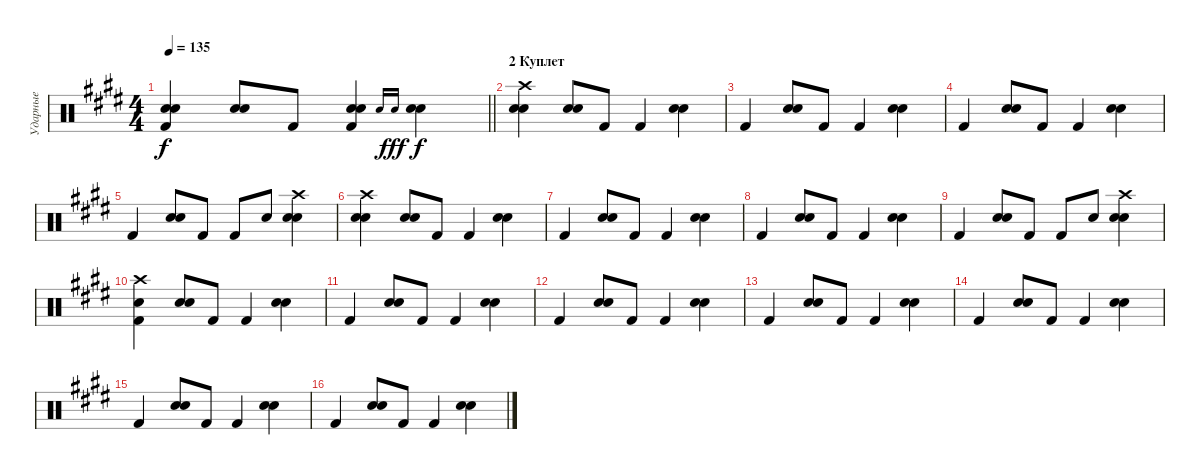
\track ("Ударные" "Ударные") {instrument percussion}
\staff {score}
\articulation defaults
\ts (4 4)
\tempo 135
\clef neutral
\barLineRight lightlight
\ks c#minor
("Electric Snare (hit)" "Electric Snare (hit)" "Kick (hit) 2").4{dy f} ("Snare (hit) 2" "Electric Snare (hit)").8 "Kick (hit) 2".8 ("Electric Snare (hit)" "Electric Snare (hit)" "Kick (hit) 2").4 "Electric Snare (hit)".16{gr onbeat} "Electric Snare (hit)".16{gr onbeat dy fff} ("Electric Snare (hit)" "Electric Snare (hit)").4{dy f} |
\section ("" "2 Куплет")
("Crash high (hit)" "Snare (hit) 2" "Electric Snare (hit)").4 ("Snare (hit) 2" "Electric Snare (hit)").8 "Kick (hit) 2".8 "Kick (hit) 2".4 ("Snare (hit) 2" "Electric Snare (hit)").4 |
"Kick (hit) 2".4 ("Snare (hit) 2" "Electric Snare (hit)").8 "Kick (hit) 2".8 "Kick (hit) 2".4 ("Snare (hit) 2" "Electric Snare (hit)").4 |
"Kick (hit) 2".4 ("Snare (hit) 2" "Electric Snare (hit)").8 "Kick (hit) 2".8 "Kick (hit) 2".4 ("Snare (hit) 2" "Electric Snare (hit)").4 |
"Kick (hit) 2".4 ("Snare (hit) 2" "Electric Snare (hit)").8 "Kick (hit) 2".8 "Kick (hit) 2".8 "Electric Snare (hit)".8 ("Crash high (hit)" "Snare (hit) 2" "Electric Snare (hit)").4 |
("Crash high (hit)" "Snare (hit) 2" "Electric Snare (hit)").4 ("Snare (hit) 2" "Electric Snare (hit)").8 "Kick (hit) 2".8 "Kick (hit) 2".4 ("Snare (hit) 2" "Electric Snare (hit)").4 |
"Kick (hit) 2".4 ("Snare (hit) 2" "Electric Snare (hit)").8 "Kick (hit) 2".8 "Kick (hit) 2".4 ("Snare (hit) 2" "Electric Snare (hit)").4 |
"Kick (hit) 2".4 ("Snare (hit) 2" "Electric Snare (hit)").8 "Kick (hit) 2".8 "Kick (hit) 2".4 ("Snare (hit) 2" "Electric Snare (hit)").4 |
"Kick (hit) 2".4 ("Snare (hit) 2" "Electric Snare (hit)").8 "Kick (hit) 2".8 "Kick (hit) 2".8 "Electric Snare (hit)".8 ("Crash high (hit)" "Snare (hit) 2" "Electric Snare (hit)").4 |
("Crash high (hit)" "Electric Snare (hit)" "Kick (hit) 2").4 ("Snare (hit) 2" "Electric Snare (hit)").8 "Kick (hit) 2".8 "Kick (hit) 2".4 ("Snare (hit) 2" "Electric Snare (hit)").4 |
"Kick (hit) 2".4 ("Snare (hit) 2" "Electric Snare (hit)").8 "Kick (hit) 2".8 "Kick (hit) 2".4 ("Snare (hit) 2" "Electric Snare (hit)").4 |
"Kick (hit) 2".4 ("Snare (hit) 2" "Electric Snare (hit)").8 "Kick (hit) 2".8 "Kick (hit) 2".4 ("Snare (hit) 2" "Electric Snare (hit)").4 |
"Kick (hit) 2".4 ("Snare (hit) 2" "Electric Snare (hit)").8 "Kick (hit) 2".8 "Kick (hit) 2".4 ("Snare (hit) 2" "Electric Snare (hit)").4 |
"Kick (hit) 2".4 ("Snare (hit) 2" "Electric Snare (hit)").8 "Kick (hit) 2".8 "Kick (hit) 2".4 ("Snare (hit) 2" "Electric Snare (hit)").4 |
"Kick (hit) 2".4 ("Snare (hit) 2" "Electric Snare (hit)").8 "Kick (hit) 2".8 "Kick (hit) 2".4 ("Snare (hit) 2" "Electric Snare (hit)").4 |
"Kick (hit) 2".4 ("Snare (hit) 2" "Electric Snare (hit)").8 "Kick (hit) 2".8 "Kick (hit) 2".4 ("Snare (hit) 2" "Electric Snare (hit)").4
